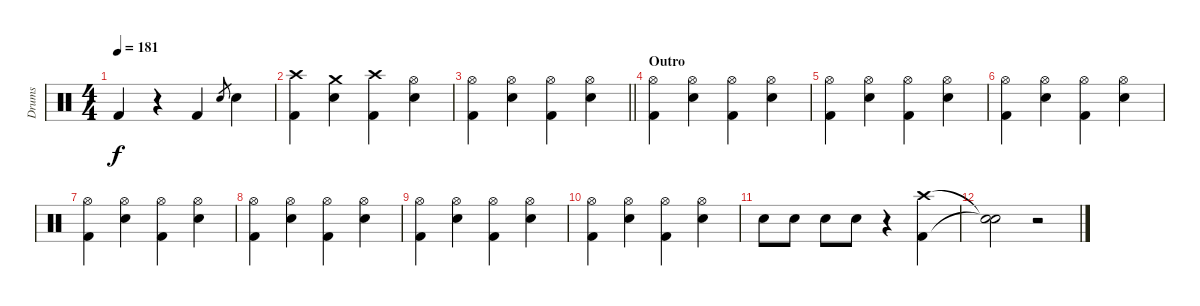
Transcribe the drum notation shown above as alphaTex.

\track ("Drums" "Drums") {instrument percussion}
\staff {score}
\articulation defaults
\ts (4 4)
\tempo 181
\clef neutral
\ks c "Kick (hit) 2".4{dy f}
r.4 "Kick (hit) 2".4 "Snare (hit) 2".8{gr} "Snare (hit) 2".4 |
("Crash high (hit)" "Kick (hit) 2").4 ("Crash medium (hit)" "Snare (hit) 2").4 ("Crash high (hit)" "Kick (hit) 2").4 ("Hi-Hat (open)" "Snare (hit) 2").4 |
\barLineRight lightlight
("Hi-Hat (open)" "Kick (hit) 2").4 ("Hi-Hat (open)" "Snare (hit) 2").4 ("Hi-Hat (open)" "Kick (hit) 2").4 ("Hi-Hat (open)" "Snare (hit) 2").4 |
\section ("" "Outro")
("Hi-Hat (open)" "Kick (hit) 2").4 ("Hi-Hat (open)" "Snare (hit) 2").4 ("Hi-Hat (open)" "Kick (hit) 2").4 ("Hi-Hat (open)" "Snare (hit) 2").4 |
("Hi-Hat (open)" "Kick (hit) 2").4 ("Hi-Hat (open)" "Snare (hit) 2").4 ("Hi-Hat (open)" "Kick (hit) 2").4 ("Hi-Hat (open)" "Snare (hit) 2").4 |
("Hi-Hat (open)" "Kick (hit) 2").4 ("Hi-Hat (open)" "Snare (hit) 2").4 ("Hi-Hat (open)" "Kick (hit) 2").4 ("Hi-Hat (open)" "Snare (hit) 2").4 |
("Hi-Hat (open)" "Kick (hit) 2").4 ("Hi-Hat (open)" "Snare (hit) 2").4 ("Hi-Hat (open)" "Kick (hit) 2").4 ("Hi-Hat (open)" "Snare (hit) 2").4 |
("Hi-Hat (open)" "Kick (hit) 2").4 ("Hi-Hat (open)" "Snare (hit) 2").4 ("Hi-Hat (open)" "Kick (hit) 2").4 ("Hi-Hat (open)" "Snare (hit) 2").4 |
("Hi-Hat (open)" "Kick (hit) 2").4 ("Hi-Hat (open)" "Snare (hit) 2").4 ("Hi-Hat (open)" "Kick (hit) 2").4 ("Hi-Hat (open)" "Snare (hit) 2").4 |
("Hi-Hat (open)" "Kick (hit) 2").4 ("Hi-Hat (open)" "Snare (hit) 2").4 ("Hi-Hat (open)" "Kick (hit) 2").4 ("Hi-Hat (open)" "Snare (hit) 2").4 |
"Snare (hit) 2".8 "Snare (hit) 2".8 "Snare (hit) 2".8 "Snare (hit) 2".8 r.4 ("Crash high (hit)" "Kick (hit) 2").4 |
("Snare (hit)"{t} "Snare (hit)"{t}).2 r.2
